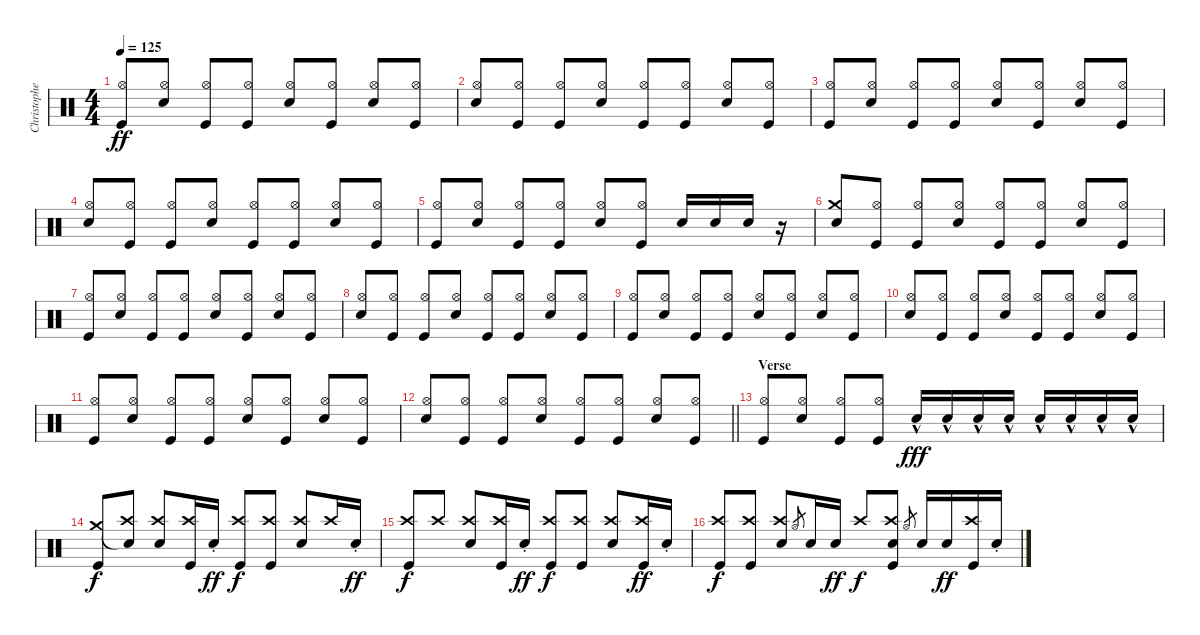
\track ("Christopher - Drums" "Christophe") {instrument percussion}
\staff {score}
\articulation defaults
\ts (4 4)
\tempo 125
\clef neutral
\ks c
("Hi-Hat (open)" "Kick (hit)").8{dy ff beam Up} ("Hi-Hat (open)" "Electric Snare (hit)").8{beam Up} ("Hi-Hat (open)" "Kick (hit)").8{beam Up} ("Hi-Hat (open)" "Kick (hit)").8{beam Up} ("Hi-Hat (open)" "Electric Snare (hit)").8{beam Up} ("Hi-Hat (open)" "Kick (hit)").8{beam Up} ("Hi-Hat (open)" "Electric Snare (hit)").8{beam Up} ("Hi-Hat (open)" "Kick (hit)").8{beam Up} |
("Hi-Hat (open)" "Electric Snare (hit)").8{beam Up} ("Hi-Hat (open)" "Kick (hit)").8{beam Up} ("Hi-Hat (open)" "Kick (hit)").8{beam Up} ("Hi-Hat (open)" "Electric Snare (hit)").8{beam Up} ("Hi-Hat (open)" "Kick (hit)").8{beam Up} ("Hi-Hat (open)" "Kick (hit)").8{beam Up} ("Hi-Hat (open)" "Electric Snare (hit)").8{beam Up} ("Hi-Hat (open)" "Kick (hit)").8{beam Up} |
("Hi-Hat (open)" "Kick (hit)").8{beam Up} ("Hi-Hat (open)" "Electric Snare (hit)").8{beam Up} ("Hi-Hat (open)" "Kick (hit)").8{beam Up} ("Hi-Hat (open)" "Kick (hit)").8{beam Up} ("Hi-Hat (open)" "Electric Snare (hit)").8{beam Up} ("Hi-Hat (open)" "Kick (hit)").8{beam Up} ("Hi-Hat (open)" "Electric Snare (hit)").8{beam Up} ("Hi-Hat (open)" "Kick (hit)").8{beam Up} |
("Hi-Hat (open)" "Electric Snare (hit)").8{beam Up} ("Hi-Hat (open)" "Kick (hit)").8{beam Up} ("Hi-Hat (open)" "Kick (hit)").8{beam Up} ("Hi-Hat (open)" "Electric Snare (hit)").8{beam Up} ("Hi-Hat (open)" "Kick (hit)").8{beam Up} ("Hi-Hat (open)" "Kick (hit)").8{beam Up} ("Hi-Hat (open)" "Electric Snare (hit)").8{beam Up} ("Hi-Hat (open)" "Kick (hit)").8{beam Up} |
("Hi-Hat (open)" "Kick (hit)").8{beam Up} ("Hi-Hat (open)" "Electric Snare (hit)").8{beam Up} ("Hi-Hat (open)" "Kick (hit)").8{beam Up} ("Hi-Hat (open)" "Kick (hit)").8{beam Up} ("Hi-Hat (open)" "Electric Snare (hit)").8{beam Up} ("Hi-Hat (open)" "Kick (hit)").8{beam Up} "Electric Snare (hit)".16{beam Up} "Electric Snare (hit)".16{beam Up} "Electric Snare (hit)".16{beam Up} r.16 |
("Crash medium (hit)" "Electric Snare (hit)").8{beam Up} ("Hi-Hat (open)" "Kick (hit)").8{beam Up} ("Hi-Hat (open)" "Kick (hit)").8{beam Up} ("Hi-Hat (open)" "Electric Snare (hit)").8{beam Up} ("Hi-Hat (open)" "Kick (hit)").8{beam Up} ("Hi-Hat (open)" "Kick (hit)").8{beam Up} ("Hi-Hat (open)" "Electric Snare (hit)").8{beam Up} ("Hi-Hat (open)" "Kick (hit)").8{beam Up} |
("Hi-Hat (open)" "Kick (hit)").8{beam Up} ("Hi-Hat (open)" "Electric Snare (hit)").8{beam Up} ("Hi-Hat (open)" "Kick (hit)").8{beam Up} ("Hi-Hat (open)" "Kick (hit)").8{beam Up} ("Hi-Hat (open)" "Electric Snare (hit)").8{beam Up} ("Hi-Hat (open)" "Kick (hit)").8{beam Up} ("Hi-Hat (open)" "Electric Snare (hit)").8{beam Up} ("Hi-Hat (open)" "Kick (hit)").8{beam Up} |
("Hi-Hat (open)" "Electric Snare (hit)").8{beam Up} ("Hi-Hat (open)" "Kick (hit)").8{beam Up} ("Hi-Hat (open)" "Kick (hit)").8{beam Up} ("Hi-Hat (open)" "Electric Snare (hit)").8{beam Up} ("Hi-Hat (open)" "Kick (hit)").8{beam Up} ("Hi-Hat (open)" "Kick (hit)").8{beam Up} ("Hi-Hat (open)" "Electric Snare (hit)").8{beam Up} ("Hi-Hat (open)" "Kick (hit)").8{beam Up} |
("Hi-Hat (open)" "Kick (hit)").8{beam Up} ("Hi-Hat (open)" "Electric Snare (hit)").8{beam Up} ("Hi-Hat (open)" "Kick (hit)").8{beam Up} ("Hi-Hat (open)" "Kick (hit)").8{beam Up} ("Hi-Hat (open)" "Electric Snare (hit)").8{beam Up} ("Hi-Hat (open)" "Kick (hit)").8{beam Up} ("Hi-Hat (open)" "Electric Snare (hit)").8{beam Up} ("Hi-Hat (open)" "Kick (hit)").8{beam Up} |
("Hi-Hat (open)" "Electric Snare (hit)").8{beam Up} ("Hi-Hat (open)" "Kick (hit)").8{beam Up} ("Hi-Hat (open)" "Kick (hit)").8{beam Up} ("Hi-Hat (open)" "Electric Snare (hit)").8{beam Up} ("Hi-Hat (open)" "Kick (hit)").8{beam Up} ("Hi-Hat (open)" "Kick (hit)").8{beam Up} ("Hi-Hat (open)" "Electric Snare (hit)").8{beam Up} ("Hi-Hat (open)" "Kick (hit)").8{beam Up} |
("Hi-Hat (open)" "Kick (hit)").8{beam Up} ("Hi-Hat (open)" "Electric Snare (hit)").8{beam Up} ("Hi-Hat (open)" "Kick (hit)").8{beam Up} ("Hi-Hat (open)" "Kick (hit)").8{beam Up} ("Hi-Hat (open)" "Electric Snare (hit)").8{beam Up} ("Hi-Hat (open)" "Kick (hit)").8{beam Up} ("Hi-Hat (open)" "Electric Snare (hit)").8{beam Up} ("Hi-Hat (open)" "Kick (hit)").8{beam Up} |
\barLineRight lightlight
("Hi-Hat (open)" "Electric Snare (hit)").8{beam Up} ("Hi-Hat (open)" "Kick (hit)").8{beam Up} ("Hi-Hat (open)" "Kick (hit)").8{beam Up} ("Hi-Hat (open)" "Electric Snare (hit)").8{beam Up} ("Hi-Hat (open)" "Kick (hit)").8{beam Up} ("Hi-Hat (open)" "Kick (hit)").8{beam Up} ("Hi-Hat (open)" "Electric Snare (hit)").8{beam Up} ("Hi-Hat (open)" "Kick (hit)").8{beam Up} |
\section ("" "Verse")
("Hi-Hat (open)" "Kick (hit)").8{beam Up} ("Hi-Hat (open)" "Electric Snare (hit)").8{beam Up} ("Hi-Hat (open)" "Kick (hit)").8{beam Up} ("Hi-Hat (open)" "Kick (hit)").8{beam Up} "Electric Snare (hit)"{hac}.16{dy fff beam Up} "Electric Snare (hit)"{hac}.16{beam Up} "Electric Snare (hit)"{hac}.16{beam Up} "Electric Snare (hit)"{hac}.16{beam Up} "Electric Snare (hit)"{hac}.16{beam Up} "Electric Snare (hit)"{hac}.16{beam Up} "Electric Snare (hit)"{hac}.16{beam Up} "Electric Snare (hit)"{hac}.16{beam Up} |
("Crash medium (hit)" "Kick (hit)").8{dy f beam Up} ("Snare (hit)"{t} "Crash high (hit)").8{beam Up} ("Crash high (hit)" "Electric Snare (hit)").8{beam Up} ("Crash high (hit)" "Kick (hit)").16{beam Up} "Electric Snare (hit)"{st}.16{dy ff beam Up} ("Crash high (hit)" "Kick (hit)").8{dy f beam Up} ("Crash high (hit)" "Kick (hit)").8{beam Up} ("Crash high (hit)" "Electric Snare (hit)").8{beam Up} "Crash high (hit)".16{beam Up} "Electric Snare (hit)"{st}.16{dy ff beam Up} |
("Crash high (hit)" "Kick (hit)").8{dy f beam Up} "Crash high (hit)".8{beam Up} ("Crash high (hit)" "Electric Snare (hit)").8{beam Up} ("Crash high (hit)" "Kick (hit)").16{beam Up} "Electric Snare (hit)"{st}.16{dy ff beam Up} ("Crash high (hit)" "Kick (hit)").8{dy f beam Up} ("Crash high (hit)" "Kick (hit)").8{beam Up} ("Crash high (hit)" "Electric Snare (hit)").8{beam Up} ("Crash high (hit)" "Kick (hit)").16{dy ff beam Up} "Electric Snare (hit)"{st}.16{beam Up} |
("Crash high (hit)" "Kick (hit)").8{dy f beam Up} ("Crash high (hit)" "Kick (hit)").8{beam Up} ("Crash high (hit)" "Electric Snare (hit)").8{beam Up} "Hi-Hat (open)".8{gr} "Electric Snare (hit)".16{beam Up} "Electric Snare (hit)".16{dy ff beam Up} "Crash high (hit)".8{dy f beam Up} ("Crash high (hit)" "Electric Snare (hit)" "Kick (hit)").8{beam Up} "Hi-Hat (open)".8{gr} "Electric Snare (hit)".16{beam Up} "Electric Snare (hit)".16{dy ff beam Up} ("Crash high (hit)" "Kick (hit)").16{beam Up} "Electric Snare (hit)"{st}.16{beam Up}
